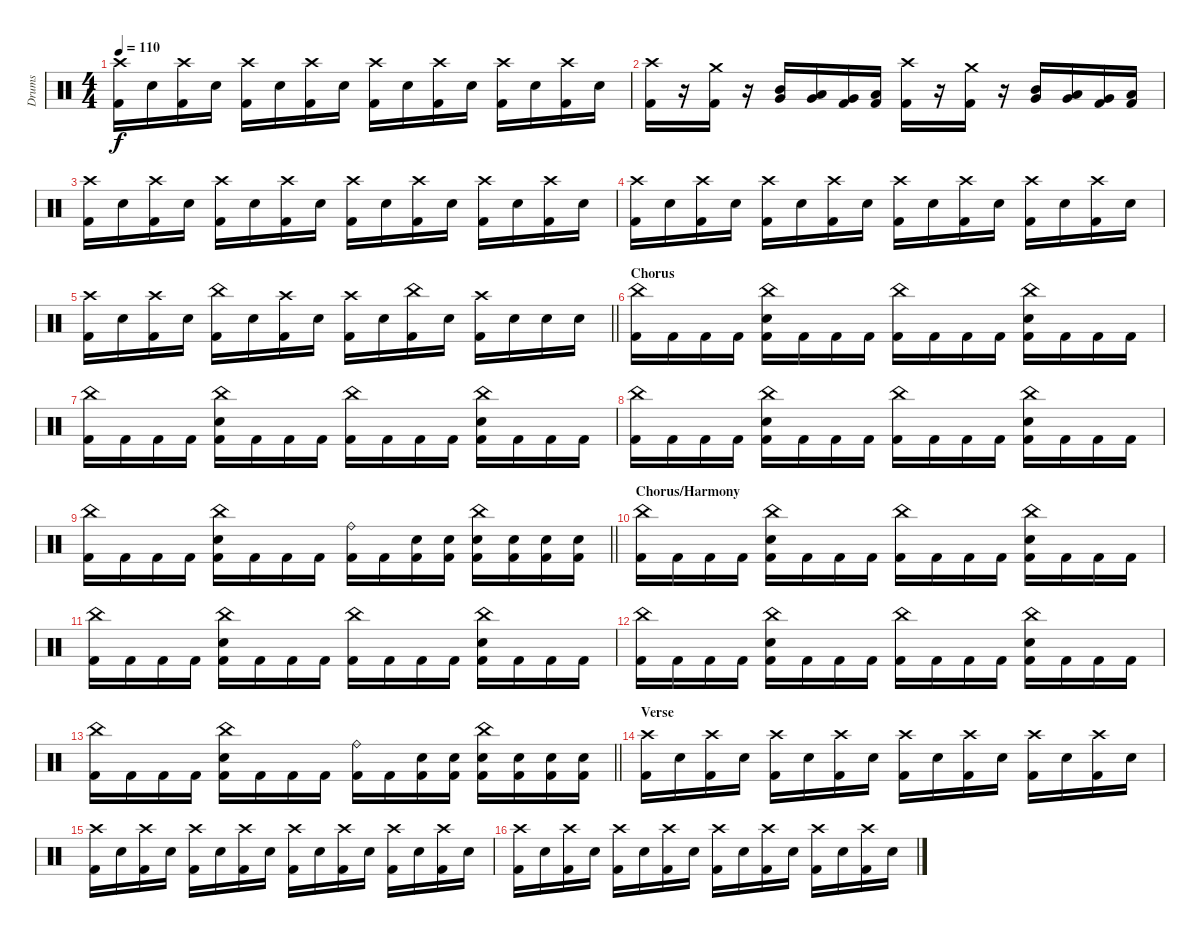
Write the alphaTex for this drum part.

\track ("Drums" "Drums") {instrument percussion}
\staff {score}
\articulation defaults
\ts (4 4)
\tempo 110
\clef neutral
\ks c
("Crash high (hit)" "Kick (hit) 2").16{dy f} "Electric Snare (hit)".16 ("Crash high (hit)" "Kick (hit) 2").16 "Electric Snare (hit)".16 ("Crash high (hit)" "Kick (hit) 2").16 "Electric Snare (hit)".16 ("Crash high (hit)" "Kick (hit) 2").16 "Electric Snare (hit)".16 ("Crash high (hit)" "Kick (hit) 2").16 "Electric Snare (hit)".16 ("Crash high (hit)" "Kick (hit) 2").16 "Electric Snare (hit)".16 ("Crash high (hit)" "Kick (hit) 2").16 "Electric Snare (hit)".16 ("Crash high (hit)" "Kick (hit) 2").16 "Electric Snare (hit)".16 |
("Crash high (hit)" "Kick (hit) 2").16 r.16 ("Crash medium (hit)" "Kick (hit) 2").16 r.16 ("Mid Tom (hit)" "Very Low Tom (hit)").16 ("Low Tom (hit)" "Very Low Tom (hit)").16 ("Very Low Tom (hit)" "Kick (hit) 2").16 ("Low Floor Tom (hit)" "Kick (hit) 2").16 ("Crash high (hit)" "Kick (hit) 2").16 r.16 ("Crash medium (hit)" "Kick (hit) 2").16 r.16 ("Mid Tom (hit)" "Very Low Tom (hit)").16 ("Low Tom (hit)" "Very Low Tom (hit)").16 ("Very Low Tom (hit)" "Kick (hit) 2").16 ("Low Floor Tom (hit)" "Kick (hit) 2").16 |
("Crash high (hit)" "Kick (hit) 2").16 "Electric Snare (hit)".16 ("Crash high (hit)" "Kick (hit) 2").16 "Electric Snare (hit)".16 ("Crash high (hit)" "Kick (hit) 2").16 "Electric Snare (hit)".16 ("Crash high (hit)" "Kick (hit) 2").16 "Electric Snare (hit)".16 ("Crash high (hit)" "Kick (hit) 2").16 "Electric Snare (hit)".16 ("Crash high (hit)" "Kick (hit) 2").16 "Electric Snare (hit)".16 ("Crash high (hit)" "Kick (hit) 2").16 "Electric Snare (hit)".16 ("Crash high (hit)" "Kick (hit) 2").16 "Electric Snare (hit)".16 |
("Crash high (hit)" "Kick (hit) 2").16 "Electric Snare (hit)".16 ("Crash high (hit)" "Kick (hit) 2").16 "Electric Snare (hit)".16 ("Crash high (hit)" "Kick (hit) 2").16 "Electric Snare (hit)".16 ("Crash high (hit)" "Kick (hit) 2").16 "Electric Snare (hit)".16 ("Crash high (hit)" "Kick (hit) 2").16 "Electric Snare (hit)".16 ("Crash high (hit)" "Kick (hit) 2").16 "Electric Snare (hit)".16 ("Crash high (hit)" "Kick (hit) 2").16 "Electric Snare (hit)".16 ("Crash high (hit)" "Kick (hit) 2").16 "Electric Snare (hit)".16 |
\barLineRight lightlight
("Crash high (hit)" "Kick (hit) 2").16 "Electric Snare (hit)".16 ("Crash high (hit)" "Kick (hit) 2").16 "Electric Snare (hit)".16 ("China (hit)" "Kick (hit) 2").16 "Electric Snare (hit)".16 ("Crash high (hit)" "Kick (hit) 2").16 "Electric Snare (hit)".16 ("Crash high (hit)" "Kick (hit) 2").16 "Electric Snare (hit)".16 ("China (hit)" "Kick (hit) 2").16 "Electric Snare (hit)".16 ("Crash high (hit)" "Kick (hit) 2").16 "Electric Snare (hit)".16 "Electric Snare (hit)".16 "Electric Snare (hit)".16 |
\section ("" "Chorus")
("China (hit)" "Kick (hit) 2").16 "Kick (hit) 2".16 "Kick (hit) 2".16 "Kick (hit) 2".16 ("China (hit)" "Electric Snare (hit)" "Kick (hit) 2").16 "Kick (hit) 2".16 "Kick (hit) 2".16 "Kick (hit) 2".16 ("China (hit)" "Kick (hit) 2").16 "Kick (hit) 2".16 "Kick (hit) 2".16 "Kick (hit) 2".16 ("China (hit)" "Electric Snare (hit)" "Kick (hit) 2").16 "Kick (hit) 2".16 "Kick (hit) 2".16 "Kick (hit) 2".16 |
("China (hit)" "Kick (hit) 2").16 "Kick (hit) 2".16 "Kick (hit) 2".16 "Kick (hit) 2".16 ("China (hit)" "Electric Snare (hit)" "Kick (hit) 2").16 "Kick (hit) 2".16 "Kick (hit) 2".16 "Kick (hit) 2".16 ("China (hit)" "Kick (hit) 2").16 "Kick (hit) 2".16 "Kick (hit) 2".16 "Kick (hit) 2".16 ("China (hit)" "Electric Snare (hit)" "Kick (hit) 2").16 "Kick (hit) 2".16 "Kick (hit) 2".16 "Kick (hit) 2".16 |
("China (hit)" "Kick (hit) 2").16 "Kick (hit) 2".16 "Kick (hit) 2".16 "Kick (hit) 2".16 ("China (hit)" "Electric Snare (hit)" "Kick (hit) 2").16 "Kick (hit) 2".16 "Kick (hit) 2".16 "Kick (hit) 2".16 ("China (hit)" "Kick (hit) 2").16 "Kick (hit) 2".16 "Kick (hit) 2".16 "Kick (hit) 2".16 ("China (hit)" "Electric Snare (hit)" "Kick (hit) 2").16 "Kick (hit) 2".16 "Kick (hit) 2".16 "Kick (hit) 2".16 |
\barLineRight lightlight
("China (hit)" "Kick (hit) 2").16 "Kick (hit) 2".16 "Kick (hit) 2".16 "Kick (hit) 2".16 ("China (hit)" "Electric Snare (hit)" "Kick (hit) 2").16 "Kick (hit) 2".16 "Kick (hit) 2".16 "Kick (hit) 2".16 ("Ride (bell)" "Kick (hit) 2").16 "Kick (hit) 2".16 ("Electric Snare (hit)" "Kick (hit) 2").16 ("Electric Snare (hit)" "Kick (hit) 2").16 ("China (hit)" "Electric Snare (hit)" "Kick (hit) 2").16 ("Electric Snare (hit)" "Kick (hit) 2").16 ("Electric Snare (hit)" "Kick (hit) 2").16 ("Electric Snare (hit)" "Kick (hit) 2").16 |
\section ("" "Chorus/Harmony")
("China (hit)" "Kick (hit) 2").16 "Kick (hit) 2".16 "Kick (hit) 2".16 "Kick (hit) 2".16 ("China (hit)" "Electric Snare (hit)" "Kick (hit) 2").16 "Kick (hit) 2".16 "Kick (hit) 2".16 "Kick (hit) 2".16 ("China (hit)" "Kick (hit) 2").16 "Kick (hit) 2".16 "Kick (hit) 2".16 "Kick (hit) 2".16 ("China (hit)" "Electric Snare (hit)" "Kick (hit) 2").16 "Kick (hit) 2".16 "Kick (hit) 2".16 "Kick (hit) 2".16 |
("China (hit)" "Kick (hit) 2").16 "Kick (hit) 2".16 "Kick (hit) 2".16 "Kick (hit) 2".16 ("China (hit)" "Electric Snare (hit)" "Kick (hit) 2").16 "Kick (hit) 2".16 "Kick (hit) 2".16 "Kick (hit) 2".16 ("China (hit)" "Kick (hit) 2").16 "Kick (hit) 2".16 "Kick (hit) 2".16 "Kick (hit) 2".16 ("China (hit)" "Electric Snare (hit)" "Kick (hit) 2").16 "Kick (hit) 2".16 "Kick (hit) 2".16 "Kick (hit) 2".16 |
("China (hit)" "Kick (hit) 2").16 "Kick (hit) 2".16 "Kick (hit) 2".16 "Kick (hit) 2".16 ("China (hit)" "Electric Snare (hit)" "Kick (hit) 2").16 "Kick (hit) 2".16 "Kick (hit) 2".16 "Kick (hit) 2".16 ("China (hit)" "Kick (hit) 2").16 "Kick (hit) 2".16 "Kick (hit) 2".16 "Kick (hit) 2".16 ("China (hit)" "Electric Snare (hit)" "Kick (hit) 2").16 "Kick (hit) 2".16 "Kick (hit) 2".16 "Kick (hit) 2".16 |
\barLineRight lightlight
("China (hit)" "Kick (hit) 2").16 "Kick (hit) 2".16 "Kick (hit) 2".16 "Kick (hit) 2".16 ("China (hit)" "Electric Snare (hit)" "Kick (hit) 2").16 "Kick (hit) 2".16 "Kick (hit) 2".16 "Kick (hit) 2".16 ("Ride (bell)" "Kick (hit) 2").16 "Kick (hit) 2".16 ("Electric Snare (hit)" "Kick (hit) 2").16 ("Electric Snare (hit)" "Kick (hit) 2").16 ("China (hit)" "Electric Snare (hit)" "Kick (hit) 2").16 ("Electric Snare (hit)" "Kick (hit) 2").16 ("Electric Snare (hit)" "Kick (hit) 2").16 ("Electric Snare (hit)" "Kick (hit) 2").16 |
\section ("" "Verse")
("Crash high (hit)" "Kick (hit) 2").16 "Electric Snare (hit)".16 ("Crash high (hit)" "Kick (hit) 2").16 "Electric Snare (hit)".16 ("Crash high (hit)" "Kick (hit) 2").16 "Electric Snare (hit)".16 ("Crash high (hit)" "Kick (hit) 2").16 "Electric Snare (hit)".16 ("Crash high (hit)" "Kick (hit) 2").16 "Electric Snare (hit)".16 ("Crash high (hit)" "Kick (hit) 2").16 "Electric Snare (hit)".16 ("Crash high (hit)" "Kick (hit) 2").16 "Electric Snare (hit)".16 ("Crash high (hit)" "Kick (hit) 2").16 "Electric Snare (hit)".16 |
("Crash high (hit)" "Kick (hit) 2").16 "Electric Snare (hit)".16 ("Crash high (hit)" "Kick (hit) 2").16 "Electric Snare (hit)".16 ("Crash high (hit)" "Kick (hit) 2").16 "Electric Snare (hit)".16 ("Crash high (hit)" "Kick (hit) 2").16 "Electric Snare (hit)".16 ("Crash high (hit)" "Kick (hit) 2").16 "Electric Snare (hit)".16 ("Crash high (hit)" "Kick (hit) 2").16 "Electric Snare (hit)".16 ("Crash high (hit)" "Kick (hit) 2").16 "Electric Snare (hit)".16 ("Crash high (hit)" "Kick (hit) 2").16 "Electric Snare (hit)".16 |
("Crash high (hit)" "Kick (hit) 2").16 "Electric Snare (hit)".16 ("Crash high (hit)" "Kick (hit) 2").16 "Electric Snare (hit)".16 ("Crash high (hit)" "Kick (hit) 2").16 "Electric Snare (hit)".16 ("Crash high (hit)" "Kick (hit) 2").16 "Electric Snare (hit)".16 ("Crash high (hit)" "Kick (hit) 2").16 "Electric Snare (hit)".16 ("Crash high (hit)" "Kick (hit) 2").16 "Electric Snare (hit)".16 ("Crash high (hit)" "Kick (hit) 2").16 "Electric Snare (hit)".16 ("Crash high (hit)" "Kick (hit) 2").16 "Electric Snare (hit)".16
